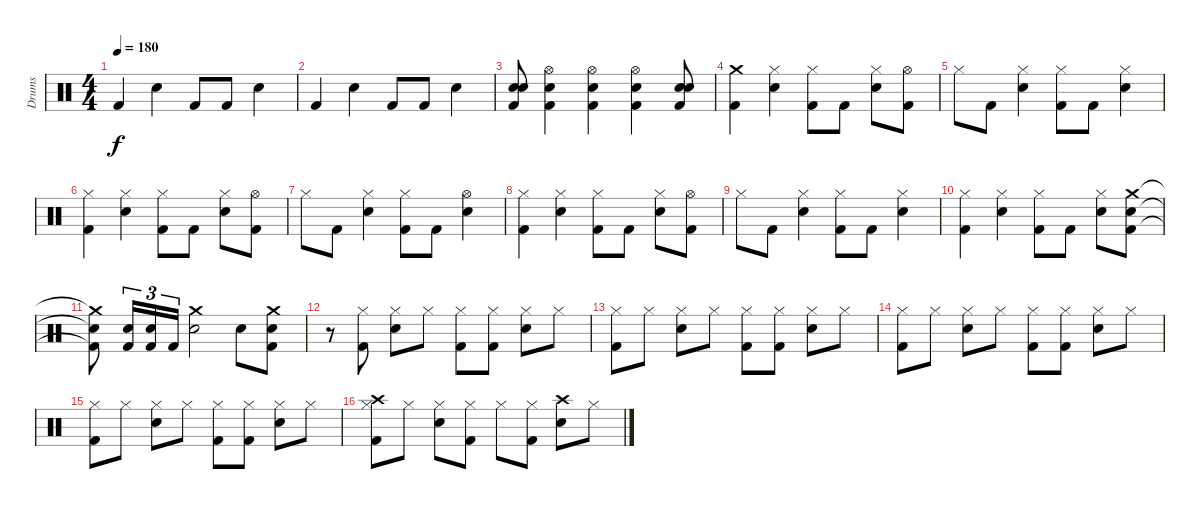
\track ("Drums" "Drums") {instrument percussion}
\staff {score}
\articulation defaults
\ts (4 4)
\tempo 180
\clef neutral
\ks c "Kick (hit) 2".4{dy f} "Electric Snare (hit)".4 "Kick (hit) 2".8 "Kick (hit) 2".8 "Electric Snare (hit)".4
|
"Kick (hit) 2".4 "Electric Snare (hit)".4 "Kick (hit) 2".8 "Kick (hit) 2".8 "Electric Snare (hit)".4 |
("Electric Snare (hit)" "Electric Snare (hit)" "Kick (hit) 2").8 ("Hi-Hat (open)" "Electric Snare (hit)" "Kick (hit) 2").4 ("Hi-Hat (open)" "Electric Snare (hit)" "Kick (hit) 2").4 ("Hi-Hat (open)" "Electric Snare (hit)" "Kick (hit) 2").4 ("Electric Snare (hit)" "Electric Snare (hit)" "Kick (hit) 2").8 |
\section ("" "")
("Crash medium (hit)" "Kick (hit) 2").4 ("Hi-Hat (closed)" "Electric Snare (hit)").4 ("Hi-Hat (closed)" "Kick (hit) 2").8 "Kick (hit) 2".8 ("Hi-Hat (closed)" "Electric Snare (hit)").8 ("Hi-Hat (open)" "Kick (hit) 2").8 |
"Hi-Hat (closed)".8 "Kick (hit) 2".8 ("Hi-Hat (closed)" "Electric Snare (hit)").4 ("Hi-Hat (closed)" "Kick (hit) 2").8 "Kick (hit) 2".8 ("Hi-Hat (closed)" "Electric Snare (hit)").4 |
("Hi-Hat (closed)" "Kick (hit) 2").4 ("Hi-Hat (closed)" "Electric Snare (hit)").4 ("Hi-Hat (closed)" "Kick (hit) 2").8 "Kick (hit) 2".8 ("Hi-Hat (closed)" "Electric Snare (hit)").8 ("Hi-Hat (open)" "Kick (hit) 2").8 |
"Hi-Hat (closed)".8 "Kick (hit) 2".8 ("Hi-Hat (closed)" "Electric Snare (hit)").4 ("Hi-Hat (closed)" "Kick (hit) 2").8 "Kick (hit) 2".8 ("Hi-Hat (open)" "Electric Snare (hit)").4 |
("Hi-Hat (closed)" "Kick (hit) 2").4 ("Hi-Hat (closed)" "Electric Snare (hit)").4 ("Hi-Hat (closed)" "Kick (hit) 2").8 "Kick (hit) 2".8 ("Hi-Hat (closed)" "Electric Snare (hit)").8 ("Hi-Hat (open)" "Kick (hit) 2").8 |
"Hi-Hat (closed)".8 "Kick (hit) 2".8 ("Hi-Hat (closed)" "Electric Snare (hit)").4 ("Hi-Hat (closed)" "Kick (hit) 2").8 "Kick (hit) 2".8 ("Hi-Hat (closed)" "Electric Snare (hit)").4 |
("Hi-Hat (closed)" "Kick (hit) 2").4 ("Hi-Hat (closed)" "Electric Snare (hit)").4 ("Hi-Hat (closed)" "Kick (hit) 2").8 "Kick (hit) 2".8 ("Hi-Hat (closed)" "Electric Snare (hit)").8 ("Crash medium (hit)" "Electric Snare (hit)" "Kick (hit) 2").8 |
("Crash medium (hit)"{t} "Electric Snare (hit)"{t} "Kick (hit) 2"{t}).8 ("Electric Snare (hit)" "Kick (hit) 2").16{tu (3 2)} ("Electric Snare (hit)" "Kick (hit) 2").16{tu (3 2)} "Kick (hit) 2".16{tu (3 2)} ("Crash medium (hit)" "Electric Snare (hit)").2 "Electric Snare (hit)".8 ("Crash medium (hit)" "Electric Snare (hit)" "Kick (hit) 2").8 |
\section ("" "")
r.8 ("Hi-Hat (closed)" "Kick (hit) 2").8 ("Hi-Hat (closed)" "Electric Snare (hit)").8 "Hi-Hat (closed)".8 ("Hi-Hat (closed)" "Kick (hit) 2").8 ("Hi-Hat (closed)" "Kick (hit) 2").8 ("Hi-Hat (closed)" "Electric Snare (hit)").8 "Hi-Hat (closed)".8 |
("Hi-Hat (closed)" "Kick (hit) 2").8 "Hi-Hat (closed)".8 ("Hi-Hat (closed)" "Electric Snare (hit)").8 "Hi-Hat (closed)".8 ("Hi-Hat (closed)" "Kick (hit) 2").8 ("Hi-Hat (closed)" "Kick (hit) 2").8 ("Hi-Hat (closed)" "Electric Snare (hit)").8 "Hi-Hat (closed)".8 |
("Hi-Hat (closed)" "Kick (hit) 2").8 "Hi-Hat (closed)".8 ("Hi-Hat (closed)" "Electric Snare (hit)").8 "Hi-Hat (closed)".8 ("Hi-Hat (closed)" "Kick (hit) 2").8 ("Hi-Hat (closed)" "Kick (hit) 2").8 ("Hi-Hat (closed)" "Electric Snare (hit)").8 "Hi-Hat (closed)".8 |
("Hi-Hat (closed)" "Kick (hit) 2").8 "Hi-Hat (closed)".8 ("Hi-Hat (closed)" "Electric Snare (hit)").8 "Hi-Hat (closed)".8 ("Hi-Hat (closed)" "Kick (hit) 2").8 ("Hi-Hat (closed)" "Kick (hit) 2").8 ("Hi-Hat (closed)" "Electric Snare (hit)").8 "Hi-Hat (closed)".8 |
("Crash high (hit)" "Hi-Hat (closed)" "Kick (hit) 2").8 "Hi-Hat (closed)".8 ("Hi-Hat (closed)" "Electric Snare (hit)").8 ("Hi-Hat (closed)" "Kick (hit) 2").8 "Hi-Hat (closed)".8 ("Hi-Hat (closed)" "Kick (hit) 2").8 ("Crash high (hit)" "Electric Snare (hit)").8 "Hi-Hat (closed)".8
